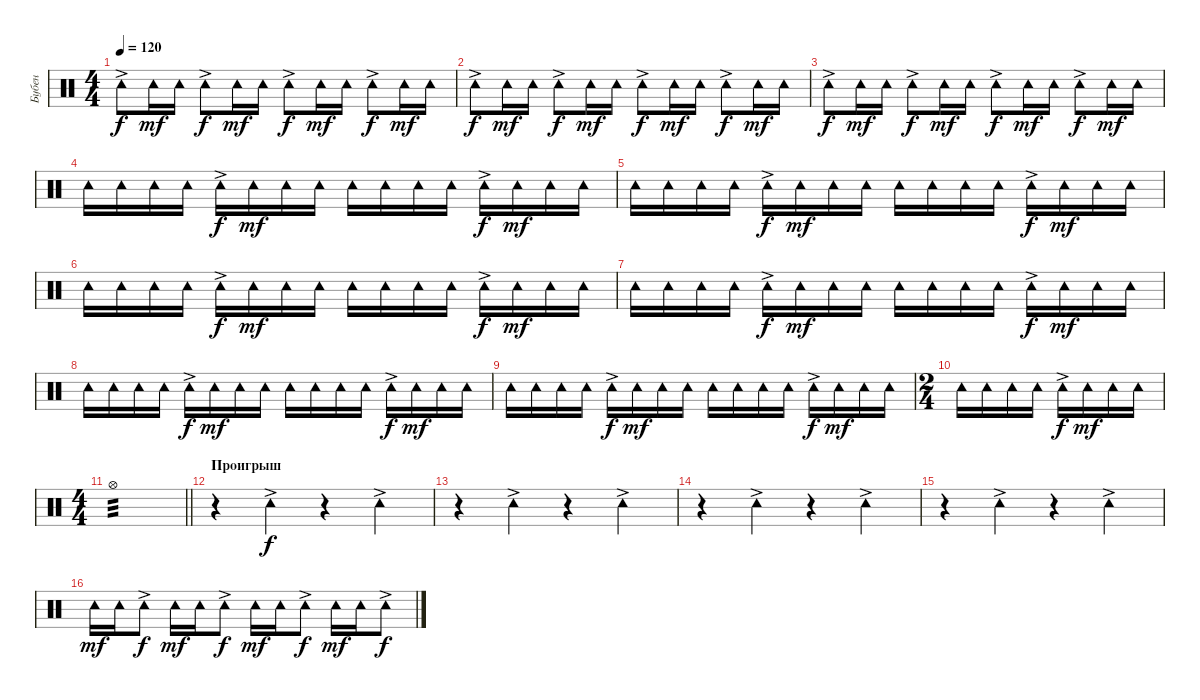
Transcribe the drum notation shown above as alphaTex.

\track ("Бубен" "Бубен") {instrument percussion}
\staff {score}
\articulation defaults
\ts (4 4)
\tempo 120
\clef neutral
\ks c "Tambourine (hit)"{ac}.8{dy f} "Tambourine (hit)".16{dy mf} "Tambourine (hit)".16 "Tambourine (hit)"{ac}.8{dy f} "Tambourine (hit)".16{dy mf} "Tambourine (hit)".16 "Tambourine (hit)"{ac}.8{dy f} "Tambourine (hit)".16{dy mf} "Tambourine (hit)".16 "Tambourine (hit)"{ac}.8{dy f} "Tambourine (hit)".16{dy mf} "Tambourine (hit)".16
|
"Tambourine (hit)"{ac}.8{dy f} "Tambourine (hit)".16{dy mf} "Tambourine (hit)".16 "Tambourine (hit)"{ac}.8{dy f} "Tambourine (hit)".16{dy mf} "Tambourine (hit)".16 "Tambourine (hit)"{ac}.8{dy f} "Tambourine (hit)".16{dy mf} "Tambourine (hit)".16 "Tambourine (hit)"{ac}.8{dy f} "Tambourine (hit)".16{dy mf} "Tambourine (hit)".16 |
"Tambourine (hit)"{ac}.8{dy f} "Tambourine (hit)".16{dy mf} "Tambourine (hit)".16 "Tambourine (hit)"{ac}.8{dy f} "Tambourine (hit)".16{dy mf} "Tambourine (hit)".16 "Tambourine (hit)"{ac}.8{dy f} "Tambourine (hit)".16{dy mf} "Tambourine (hit)".16 "Tambourine (hit)"{ac}.8{dy f} "Tambourine (hit)".16{dy mf} "Tambourine (hit)".16 |
"Tambourine (hit)".16 "Tambourine (hit)".16 "Tambourine (hit)".16 "Tambourine (hit)".16 "Tambourine (hit)"{ac}.16{dy f} "Tambourine (hit)".16{dy mf} "Tambourine (hit)".16 "Tambourine (hit)".16 "Tambourine (hit)".16 "Tambourine (hit)".16 "Tambourine (hit)".16 "Tambourine (hit)".16 "Tambourine (hit)"{ac}.16{dy f} "Tambourine (hit)".16{dy mf} "Tambourine (hit)".16 "Tambourine (hit)".16 |
"Tambourine (hit)".16 "Tambourine (hit)".16 "Tambourine (hit)".16 "Tambourine (hit)".16 "Tambourine (hit)"{ac}.16{dy f} "Tambourine (hit)".16{dy mf} "Tambourine (hit)".16 "Tambourine (hit)".16 "Tambourine (hit)".16 "Tambourine (hit)".16 "Tambourine (hit)".16 "Tambourine (hit)".16 "Tambourine (hit)"{ac}.16{dy f} "Tambourine (hit)".16{dy mf} "Tambourine (hit)".16 "Tambourine (hit)".16 |
"Tambourine (hit)".16 "Tambourine (hit)".16 "Tambourine (hit)".16 "Tambourine (hit)".16 "Tambourine (hit)"{ac}.16{dy f} "Tambourine (hit)".16{dy mf} "Tambourine (hit)".16 "Tambourine (hit)".16 "Tambourine (hit)".16 "Tambourine (hit)".16 "Tambourine (hit)".16 "Tambourine (hit)".16 "Tambourine (hit)"{ac}.16{dy f} "Tambourine (hit)".16{dy mf} "Tambourine (hit)".16 "Tambourine (hit)".16 |
"Tambourine (hit)".16 "Tambourine (hit)".16 "Tambourine (hit)".16 "Tambourine (hit)".16 "Tambourine (hit)"{ac}.16{dy f} "Tambourine (hit)".16{dy mf} "Tambourine (hit)".16 "Tambourine (hit)".16 "Tambourine (hit)".16 "Tambourine (hit)".16 "Tambourine (hit)".16 "Tambourine (hit)".16 "Tambourine (hit)"{ac}.16{dy f} "Tambourine (hit)".16{dy mf} "Tambourine (hit)".16 "Tambourine (hit)".16 |
"Tambourine (hit)".16 "Tambourine (hit)".16 "Tambourine (hit)".16 "Tambourine (hit)".16 "Tambourine (hit)"{ac}.16{dy f} "Tambourine (hit)".16{dy mf} "Tambourine (hit)".16 "Tambourine (hit)".16 "Tambourine (hit)".16 "Tambourine (hit)".16 "Tambourine (hit)".16 "Tambourine (hit)".16 "Tambourine (hit)"{ac}.16{dy f} "Tambourine (hit)".16{dy mf} "Tambourine (hit)".16 "Tambourine (hit)".16 |
"Tambourine (hit)".16 "Tambourine (hit)".16 "Tambourine (hit)".16 "Tambourine (hit)".16 "Tambourine (hit)"{ac}.16{dy f} "Tambourine (hit)".16{dy mf} "Tambourine (hit)".16 "Tambourine (hit)".16 "Tambourine (hit)".16 "Tambourine (hit)".16 "Tambourine (hit)".16 "Tambourine (hit)".16 "Tambourine (hit)"{ac}.16{dy f} "Tambourine (hit)".16{dy mf} "Tambourine (hit)".16 "Tambourine (hit)".16 |
\ts (2 4)
"Tambourine (hit)".16 "Tambourine (hit)".16 "Tambourine (hit)".16 "Tambourine (hit)".16 "Tambourine (hit)"{ac}.16{dy f} "Tambourine (hit)".16{dy mf} "Tambourine (hit)".16 "Tambourine (hit)".16 |
\ts (4 4)
\barLineRight lightlight "Hi-Hat (open)".1{tp 3}
|
\section ("" "Проигрыш")
r.4 "Tambourine (hit)"{ac}.4{dy f} r.4 "Tambourine (hit)"{ac}.4 |
r.4 "Tambourine (hit)"{ac}.4 r.4 "Tambourine (hit)"{ac}.4 |
r.4 "Tambourine (hit)"{ac}.4 r.4 "Tambourine (hit)"{ac}.4 |
r.4 "Tambourine (hit)"{ac}.4 r.4 "Tambourine (hit)"{ac}.4 |
"Tambourine (hit)".16{dy mf} "Tambourine (hit)".16 "Tambourine (hit)"{ac}.8{dy f} "Tambourine (hit)".16{dy mf} "Tambourine (hit)".16 "Tambourine (hit)"{ac}.8{dy f} "Tambourine (hit)".16{dy mf} "Tambourine (hit)".16 "Tambourine (hit)"{ac}.8{dy f} "Tambourine (hit)".16{dy mf} "Tambourine (hit)".16 "Tambourine (hit)"{ac}.8{dy f}
